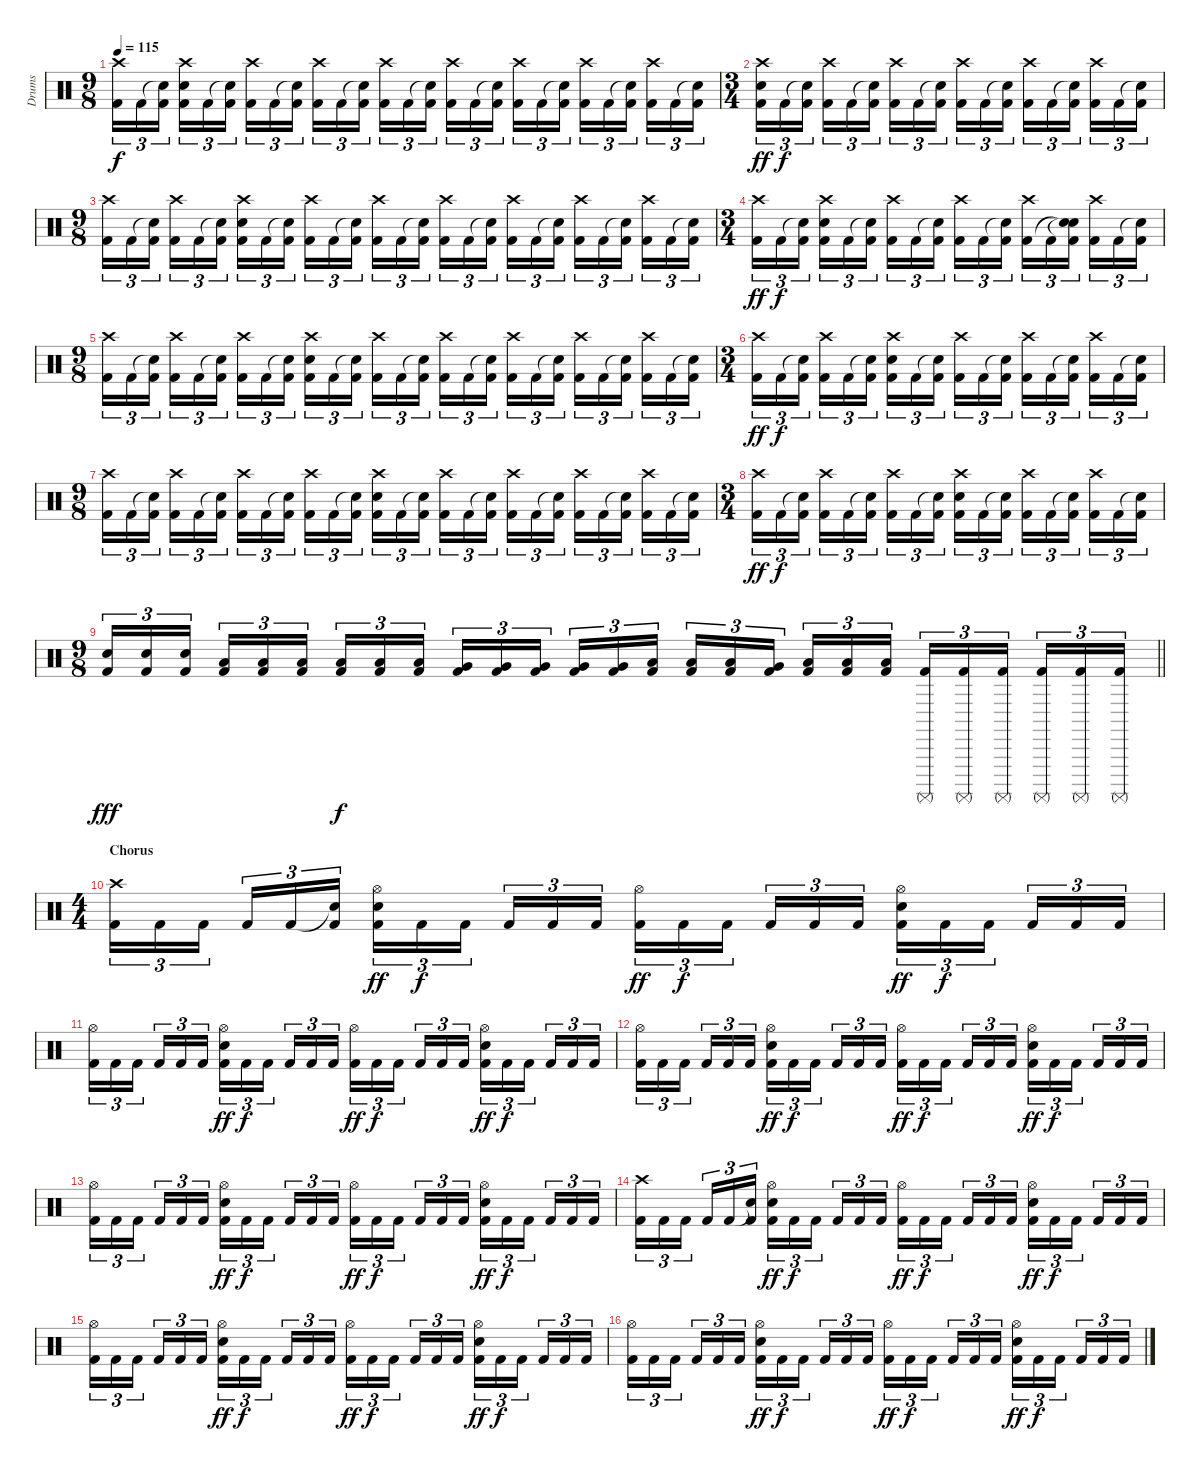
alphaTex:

\track ("Drums" "Drums") {instrument percussion}
\staff {score}
\articulation defaults
\ts (9 8)
\tempo 115
\clef neutral
\ks c
("Crash high (hit)" "Kick (hit) 2").16{tu (3 2) dy f} "Kick (hit) 2".16{tu (3 2)} ("Snare (hit)"{t} "Kick (hit) 2").16{tu (3 2) beam splitsecondary} ("Crash high (hit)" "Electric Snare (hit)" "Kick (hit) 2").16{tu (3 2)} "Kick (hit) 2".16{tu (3 2)} ("Snare (hit)"{t} "Kick (hit) 2").16{tu (3 2) beam splitsecondary} ("Crash high (hit)" "Kick (hit) 2").16{tu (3 2)} "Kick (hit) 2".16{tu (3 2)} ("Snare (hit)"{t} "Kick (hit) 2").16{tu (3 2)} ("Crash high (hit)" "Kick (hit) 2").16{tu (3 2)} "Kick (hit) 2".16{tu (3 2)} ("Snare (hit)"{t} "Kick (hit) 2").16{tu (3 2) beam splitsecondary} ("Crash high (hit)" "Kick (hit) 2").16{tu (3 2)} "Kick (hit) 2".16{tu (3 2)} ("Snare (hit)"{t} "Kick (hit) 2").16{tu (3 2) beam splitsecondary} ("Crash high (hit)" "Kick (hit) 2").16{tu (3 2)} "Kick (hit) 2".16{tu (3 2)} ("Snare (hit)"{t} "Kick (hit) 2").16{tu (3 2)} ("Crash high (hit)" "Kick (hit) 2").16{tu (3 2)} "Kick (hit) 2".16{tu (3 2)} ("Snare (hit)"{t} "Kick (hit) 2").16{tu (3 2) beam splitsecondary} ("Crash high (hit)" "Kick (hit) 2").16{tu (3 2)} "Kick (hit) 2".16{tu (3 2)} ("Snare (hit)"{t} "Kick (hit) 2").16{tu (3 2) beam splitsecondary} ("Crash high (hit)" "Kick (hit) 2").16{tu (3 2)} "Kick (hit) 2".16{tu (3 2)} ("Snare (hit)"{t} "Kick (hit) 2").16{tu (3 2)} |
\ts (3 4)
("Crash high (hit)" "Electric Snare (hit)" "Kick (hit) 2").16{tu (3 2) dy ff} "Kick (hit) 2".16{tu (3 2) dy f} ("Snare (hit)"{t} "Kick (hit) 2").16{tu (3 2) beam splitsecondary} ("Crash high (hit)" "Kick (hit) 2").16{tu (3 2)} "Kick (hit) 2".16{tu (3 2)} ("Snare (hit)"{t} "Kick (hit) 2").16{tu (3 2)} ("Crash high (hit)" "Kick (hit) 2").16{tu (3 2)} "Kick (hit) 2".16{tu (3 2)} ("Snare (hit)"{t} "Kick (hit) 2").16{tu (3 2) beam splitsecondary} ("Crash high (hit)" "Kick (hit) 2").16{tu (3 2)} "Kick (hit) 2".16{tu (3 2)} ("Snare (hit)"{t} "Kick (hit) 2").16{tu (3 2)} ("Crash high (hit)" "Kick (hit) 2").16{tu (3 2)} "Kick (hit) 2".16{tu (3 2)} ("Snare (hit)"{t} "Kick (hit) 2").16{tu (3 2) beam splitsecondary} ("Crash high (hit)" "Kick (hit) 2").16{tu (3 2)} "Kick (hit) 2".16{tu (3 2)} ("Snare (hit)"{t} "Kick (hit) 2").16{tu (3 2)} |
\ts (9 8)
("Crash high (hit)" "Kick (hit) 2").16{tu (3 2)} "Kick (hit) 2".16{tu (3 2)} ("Snare (hit)"{t} "Kick (hit) 2").16{tu (3 2) beam splitsecondary} ("Crash high (hit)" "Kick (hit) 2").16{tu (3 2)} "Kick (hit) 2".16{tu (3 2)} ("Snare (hit)"{t} "Kick (hit) 2").16{tu (3 2) beam splitsecondary} ("Crash high (hit)" "Electric Snare (hit)" "Kick (hit) 2").16{tu (3 2)} "Kick (hit) 2".16{tu (3 2)} ("Snare (hit)"{t} "Kick (hit) 2").16{tu (3 2)} ("Crash high (hit)" "Kick (hit) 2").16{tu (3 2)} "Kick (hit) 2".16{tu (3 2)} ("Snare (hit)"{t} "Kick (hit) 2").16{tu (3 2) beam splitsecondary} ("Crash high (hit)" "Kick (hit) 2").16{tu (3 2)} "Kick (hit) 2".16{tu (3 2)} ("Snare (hit)"{t} "Kick (hit) 2").16{tu (3 2) beam splitsecondary} ("Crash high (hit)" "Kick (hit) 2").16{tu (3 2)} "Kick (hit) 2".16{tu (3 2)} ("Snare (hit)"{t} "Kick (hit) 2").16{tu (3 2)} ("Crash high (hit)" "Kick (hit) 2").16{tu (3 2)} "Kick (hit) 2".16{tu (3 2)} ("Snare (hit)"{t} "Kick (hit) 2").16{tu (3 2) beam splitsecondary} ("Crash high (hit)" "Kick (hit) 2").16{tu (3 2)} "Kick (hit) 2".16{tu (3 2)} ("Snare (hit)"{t} "Kick (hit) 2").16{tu (3 2) beam splitsecondary} ("Crash high (hit)" "Kick (hit) 2").16{tu (3 2)} "Kick (hit) 2".16{tu (3 2)} ("Snare (hit)"{t} "Kick (hit) 2").16{tu (3 2)} |
\ts (3 4)
("Crash high (hit)" "Kick (hit) 2").16{tu (3 2) dy ff} "Kick (hit) 2".16{tu (3 2) dy f} ("Snare (hit)"{t} "Kick (hit) 2").16{tu (3 2) beam splitsecondary} ("Crash high (hit)" "Electric Snare (hit)" "Kick (hit) 2").16{tu (3 2)} "Kick (hit) 2".16{tu (3 2)} ("Snare (hit)"{t} "Kick (hit) 2").16{tu (3 2)} ("Crash high (hit)" "Kick (hit) 2").16{tu (3 2)} "Kick (hit) 2".16{tu (3 2)} ("Snare (hit)"{t} "Kick (hit) 2").16{tu (3 2) beam splitsecondary} ("Crash high (hit)" "Kick (hit) 2").16{tu (3 2)} "Kick (hit) 2".16{tu (3 2)} ("Snare (hit)"{t} "Kick (hit) 2").16{tu (3 2)} ("Crash high (hit)" "Kick (hit) 2").16{tu (3 2)} "Kick (hit) 2".16{tu (3 2)} ("Snare (hit)"{t} "Snare (hit)"{t} "Kick (hit) 2").16{tu (3 2) beam splitsecondary} ("Crash high (hit)" "Kick (hit) 2").16{tu (3 2)} "Kick (hit) 2".16{tu (3 2)} ("Snare (hit)"{t} "Kick (hit) 2").16{tu (3 2)} |
\ts (9 8)
("Crash high (hit)" "Kick (hit) 2").16{tu (3 2)} "Kick (hit) 2".16{tu (3 2)} ("Snare (hit)"{t} "Kick (hit) 2").16{tu (3 2) beam splitsecondary} ("Crash high (hit)" "Kick (hit) 2").16{tu (3 2)} "Kick (hit) 2".16{tu (3 2)} ("Snare (hit)"{t} "Kick (hit) 2").16{tu (3 2) beam splitsecondary} ("Crash high (hit)" "Kick (hit) 2").16{tu (3 2)} "Kick (hit) 2".16{tu (3 2)} ("Snare (hit)"{t} "Kick (hit) 2").16{tu (3 2)} ("Crash high (hit)" "Electric Snare (hit)" "Kick (hit) 2").16{tu (3 2)} "Kick (hit) 2".16{tu (3 2)} ("Snare (hit)"{t} "Kick (hit) 2").16{tu (3 2) beam splitsecondary} ("Crash high (hit)" "Kick (hit) 2").16{tu (3 2)} "Kick (hit) 2".16{tu (3 2)} ("Snare (hit)"{t} "Kick (hit) 2").16{tu (3 2) beam splitsecondary} ("Crash high (hit)" "Kick (hit) 2").16{tu (3 2)} "Kick (hit) 2".16{tu (3 2)} ("Snare (hit)"{t} "Kick (hit) 2").16{tu (3 2)} ("Crash high (hit)" "Kick (hit) 2").16{tu (3 2)} "Kick (hit) 2".16{tu (3 2)} ("Snare (hit)"{t} "Kick (hit) 2").16{tu (3 2) beam splitsecondary} ("Crash high (hit)" "Kick (hit) 2").16{tu (3 2)} "Kick (hit) 2".16{tu (3 2)} ("Snare (hit)"{t} "Kick (hit) 2").16{tu (3 2) beam splitsecondary} ("Crash high (hit)" "Kick (hit) 2").16{tu (3 2)} "Kick (hit) 2".16{tu (3 2)} ("Snare (hit)"{t} "Kick (hit) 2").16{tu (3 2)} |
\ts (3 4)
("Crash high (hit)" "Kick (hit) 2").16{tu (3 2) dy ff} "Kick (hit) 2".16{tu (3 2) dy f} ("Snare (hit)"{t} "Kick (hit) 2").16{tu (3 2) beam splitsecondary} ("Crash high (hit)" "Kick (hit) 2").16{tu (3 2)} "Kick (hit) 2".16{tu (3 2)} ("Snare (hit)"{t} "Kick (hit) 2").16{tu (3 2)} ("Crash high (hit)" "Electric Snare (hit)" "Kick (hit) 2").16{tu (3 2)} "Kick (hit) 2".16{tu (3 2)} ("Snare (hit)"{t} "Kick (hit) 2").16{tu (3 2) beam splitsecondary} ("Crash high (hit)" "Kick (hit) 2").16{tu (3 2)} "Kick (hit) 2".16{tu (3 2)} ("Snare (hit)"{t} "Kick (hit) 2").16{tu (3 2)} ("Crash high (hit)" "Kick (hit) 2").16{tu (3 2)} "Kick (hit) 2".16{tu (3 2)} ("Snare (hit)"{t} "Kick (hit) 2").16{tu (3 2) beam splitsecondary} ("Crash high (hit)" "Kick (hit) 2").16{tu (3 2)} "Kick (hit) 2".16{tu (3 2)} ("Snare (hit)"{t} "Kick (hit) 2").16{tu (3 2)} |
\ts (9 8)
("Crash high (hit)" "Kick (hit) 2").16{tu (3 2)} "Kick (hit) 2".16{tu (3 2)} ("Snare (hit)"{t} "Kick (hit) 2").16{tu (3 2) beam splitsecondary} ("Crash high (hit)" "Kick (hit) 2").16{tu (3 2)} "Kick (hit) 2".16{tu (3 2)} ("Snare (hit)"{t} "Kick (hit) 2").16{tu (3 2) beam splitsecondary} ("Crash high (hit)" "Kick (hit) 2").16{tu (3 2)} "Kick (hit) 2".16{tu (3 2)} ("Snare (hit)"{t} "Kick (hit) 2").16{tu (3 2)} ("Crash high (hit)" "Kick (hit) 2").16{tu (3 2)} "Kick (hit) 2".16{tu (3 2)} ("Snare (hit)"{t} "Kick (hit) 2").16{tu (3 2) beam splitsecondary} ("Crash high (hit)" "Electric Snare (hit)" "Kick (hit) 2").16{tu (3 2)} "Kick (hit) 2".16{tu (3 2)} ("Snare (hit)"{t} "Kick (hit) 2").16{tu (3 2) beam splitsecondary} ("Crash high (hit)" "Kick (hit) 2").16{tu (3 2)} "Kick (hit) 2".16{tu (3 2)} ("Snare (hit)"{t} "Kick (hit) 2").16{tu (3 2)} ("Crash high (hit)" "Kick (hit) 2").16{tu (3 2)} "Kick (hit) 2".16{tu (3 2)} ("Snare (hit)"{t} "Kick (hit) 2").16{tu (3 2) beam splitsecondary} ("Crash high (hit)" "Kick (hit) 2").16{tu (3 2)} "Kick (hit) 2".16{tu (3 2)} ("Snare (hit)"{t} "Kick (hit) 2").16{tu (3 2) beam splitsecondary} ("Crash high (hit)" "Kick (hit) 2").16{tu (3 2)} "Kick (hit) 2".16{tu (3 2)} ("Snare (hit)"{t} "Kick (hit) 2").16{tu (3 2)} |
\ts (3 4)
("Crash high (hit)" "Kick (hit) 2").16{tu (3 2) dy ff} "Kick (hit) 2".16{tu (3 2) dy f} ("Snare (hit)"{t} "Kick (hit) 2").16{tu (3 2) beam splitsecondary} ("Crash high (hit)" "Kick (hit) 2").16{tu (3 2)} "Kick (hit) 2".16{tu (3 2)} ("Snare (hit)"{t} "Kick (hit) 2").16{tu (3 2)} ("Crash high (hit)" "Kick (hit) 2").16{tu (3 2)} "Kick (hit) 2".16{tu (3 2)} ("Snare (hit)"{t} "Kick (hit) 2").16{tu (3 2) beam splitsecondary} ("Crash high (hit)" "Electric Snare (hit)" "Kick (hit) 2").16{tu (3 2)} "Kick (hit) 2".16{tu (3 2)} ("Snare (hit)"{t} "Kick (hit) 2").16{tu (3 2)} ("Crash high (hit)" "Kick (hit) 2").16{tu (3 2)} "Kick (hit) 2".16{tu (3 2)} ("Snare (hit)"{t} "Kick (hit) 2").16{tu (3 2) beam splitsecondary} ("Crash high (hit)" "Kick (hit) 2").16{tu (3 2)} "Kick (hit) 2".16{tu (3 2)} ("Snare (hit)"{t} "Kick (hit) 2").16{tu (3 2)} |
\ts (9 8)
\barLineRight lightlight
("Snare (hit) 2" "Kick (hit) 2").16{tu (3 2) dy fff} ("Snare (hit) 2" "Kick (hit) 2").16{tu (3 2)} ("Snare (hit) 2" "Kick (hit) 2").16{tu (3 2) beam splitsecondary} ("Low Tom (hit)" "Kick (hit) 2").16{tu (3 2)} ("Low Tom (hit)" "Kick (hit) 2").16{tu (3 2)} ("Low Tom (hit)" "Kick (hit) 2").16{tu (3 2) beam splitsecondary} ("Low Tom (hit)" "Kick (hit) 2").16{tu (3 2) dy f} ("Low Tom (hit)" "Kick (hit) 2").16{tu (3 2)} ("Low Tom (hit)" "Kick (hit) 2").16{tu (3 2)} ("Very Low Tom (hit)" "Kick (hit) 2").16{tu (3 2)} ("Very Low Tom (hit)" "Kick (hit) 2").16{tu (3 2)} ("Very Low Tom (hit)" "Kick (hit) 2").16{tu (3 2) beam splitsecondary} ("Very Low Tom (hit)" "Kick (hit) 2").16{tu (3 2)} ("Very Low Tom (hit)" "Kick (hit) 2").16{tu (3 2)} ("Low Floor Tom (hit)" "Kick (hit) 2").16{tu (3 2) beam splitsecondary} ("Low Floor Tom (hit)" "Kick (hit) 2").16{tu (3 2)} ("Low Floor Tom (hit)" "Kick (hit) 2").16{tu (3 2)} ("Very Low Tom (hit)" "Kick (hit) 2").16{tu (3 2)} ("Low Floor Tom (hit)" "Kick (hit) 2").16{tu (3 2)} ("Low Floor Tom (hit)" "Kick (hit) 2").16{tu (3 2)} ("Low Floor Tom (hit)" "Kick (hit) 2").16{tu (3 2) beam splitsecondary} ("Surdo (mute)" "Kick (hit) 2").16{tu (3 2)} ("Surdo (mute)" "Kick (hit) 2").16{tu (3 2)} ("Surdo (mute)" "Kick (hit) 2").16{tu (3 2) beam splitsecondary} ("Surdo (mute)" "Kick (hit) 2").16{tu (3 2)} ("Surdo (mute)" "Kick (hit) 2").16{tu (3 2)} ("Surdo (mute)" "Kick (hit) 2").16{tu (3 2)} |
\ts (4 4)
\section ("" "Chorus")
("Crash high (hit)" "Kick (hit) 2").16{tu (3 2)} "Kick (hit) 2".16{tu (3 2)} "Kick (hit) 2".16{tu (3 2) beam splitsecondary} "Kick (hit) 2".16{tu (3 2)} "Kick (hit) 2".16{tu (3 2)} ("Snare (hit)"{t} "Kick (hit) 2").16{tu (3 2)} ("Hi-Hat (open)" "Electric Snare (hit)" "Kick (hit) 2").16{tu (3 2) dy ff} "Kick (hit) 2".16{tu (3 2) dy f} "Kick (hit) 2".16{tu (3 2) beam splitsecondary} "Kick (hit) 2".16{tu (3 2)} "Kick (hit) 2".16{tu (3 2)} "Kick (hit) 2".16{tu (3 2)} ("Hi-Hat (open)" "Kick (hit) 2").16{tu (3 2) dy ff} "Kick (hit) 2".16{tu (3 2) dy f} "Kick (hit) 2".16{tu (3 2) beam splitsecondary} "Kick (hit) 2".16{tu (3 2)} "Kick (hit) 2".16{tu (3 2)} "Kick (hit) 2".16{tu (3 2)} ("Hi-Hat (open)" "Electric Snare (hit)" "Kick (hit) 2").16{tu (3 2) dy ff} "Kick (hit) 2".16{tu (3 2) dy f} "Kick (hit) 2".16{tu (3 2) beam splitsecondary} "Kick (hit) 2".16{tu (3 2)} "Kick (hit) 2".16{tu (3 2)} "Kick (hit) 2".16{tu (3 2)} |
("Hi-Hat (open)" "Kick (hit) 2").16{tu (3 2)} "Kick (hit) 2".16{tu (3 2)} "Kick (hit) 2".16{tu (3 2) beam splitsecondary} "Kick (hit) 2".16{tu (3 2)} "Kick (hit) 2".16{tu (3 2)} "Kick (hit) 2".16{tu (3 2)} ("Hi-Hat (open)" "Electric Snare (hit)" "Kick (hit) 2").16{tu (3 2) dy ff} "Kick (hit) 2".16{tu (3 2) dy f} "Kick (hit) 2".16{tu (3 2) beam splitsecondary} "Kick (hit) 2".16{tu (3 2)} "Kick (hit) 2".16{tu (3 2)} "Kick (hit) 2".16{tu (3 2)} ("Hi-Hat (open)" "Kick (hit) 2").16{tu (3 2) dy ff} "Kick (hit) 2".16{tu (3 2) dy f} "Kick (hit) 2".16{tu (3 2) beam splitsecondary} "Kick (hit) 2".16{tu (3 2)} "Kick (hit) 2".16{tu (3 2)} "Kick (hit) 2".16{tu (3 2)} ("Hi-Hat (open)" "Electric Snare (hit)" "Kick (hit) 2").16{tu (3 2) dy ff} "Kick (hit) 2".16{tu (3 2) dy f} "Kick (hit) 2".16{tu (3 2) beam splitsecondary} "Kick (hit) 2".16{tu (3 2)} "Kick (hit) 2".16{tu (3 2)} "Kick (hit) 2".16{tu (3 2)} |
("Hi-Hat (open)" "Kick (hit) 2").16{tu (3 2)} "Kick (hit) 2".16{tu (3 2)} "Kick (hit) 2".16{tu (3 2) beam splitsecondary} "Kick (hit) 2".16{tu (3 2)} "Kick (hit) 2".16{tu (3 2)} "Kick (hit) 2".16{tu (3 2)} ("Hi-Hat (open)" "Electric Snare (hit)" "Kick (hit) 2").16{tu (3 2) dy ff} "Kick (hit) 2".16{tu (3 2) dy f} "Kick (hit) 2".16{tu (3 2) beam splitsecondary} "Kick (hit) 2".16{tu (3 2)} "Kick (hit) 2".16{tu (3 2)} "Kick (hit) 2".16{tu (3 2)} ("Hi-Hat (open)" "Kick (hit) 2").16{tu (3 2) dy ff} "Kick (hit) 2".16{tu (3 2) dy f} "Kick (hit) 2".16{tu (3 2) beam splitsecondary} "Kick (hit) 2".16{tu (3 2)} "Kick (hit) 2".16{tu (3 2)} "Kick (hit) 2".16{tu (3 2)} ("Hi-Hat (open)" "Electric Snare (hit)" "Kick (hit) 2").16{tu (3 2) dy ff} "Kick (hit) 2".16{tu (3 2) dy f} "Kick (hit) 2".16{tu (3 2) beam splitsecondary} "Kick (hit) 2".16{tu (3 2)} "Kick (hit) 2".16{tu (3 2)} "Kick (hit) 2".16{tu (3 2)} |
("Hi-Hat (open)" "Kick (hit) 2").16{tu (3 2)} "Kick (hit) 2".16{tu (3 2)} "Kick (hit) 2".16{tu (3 2) beam splitsecondary} "Kick (hit) 2".16{tu (3 2)} "Kick (hit) 2".16{tu (3 2)} "Kick (hit) 2".16{tu (3 2)} ("Hi-Hat (open)" "Electric Snare (hit)" "Kick (hit) 2").16{tu (3 2) dy ff} "Kick (hit) 2".16{tu (3 2) dy f} "Kick (hit) 2".16{tu (3 2) beam splitsecondary} "Kick (hit) 2".16{tu (3 2)} "Kick (hit) 2".16{tu (3 2)} "Kick (hit) 2".16{tu (3 2)} ("Hi-Hat (open)" "Kick (hit) 2").16{tu (3 2) dy ff} "Kick (hit) 2".16{tu (3 2) dy f} "Kick (hit) 2".16{tu (3 2) beam splitsecondary} "Kick (hit) 2".16{tu (3 2)} "Kick (hit) 2".16{tu (3 2)} "Kick (hit) 2".16{tu (3 2)} ("Hi-Hat (open)" "Electric Snare (hit)" "Kick (hit) 2").16{tu (3 2) dy ff} "Kick (hit) 2".16{tu (3 2) dy f} "Kick (hit) 2".16{tu (3 2) beam splitsecondary} "Kick (hit) 2".16{tu (3 2)} "Kick (hit) 2".16{tu (3 2)} "Kick (hit) 2".16{tu (3 2)} |
("Crash high (hit)" "Kick (hit) 2").16{tu (3 2)} "Kick (hit) 2".16{tu (3 2)} "Kick (hit) 2".16{tu (3 2) beam splitsecondary} "Kick (hit) 2".16{tu (3 2)} "Kick (hit) 2".16{tu (3 2)} ("Snare (hit)"{t} "Kick (hit) 2").16{tu (3 2)} ("Hi-Hat (open)" "Electric Snare (hit)" "Kick (hit) 2").16{tu (3 2) dy ff} "Kick (hit) 2".16{tu (3 2) dy f} "Kick (hit) 2".16{tu (3 2) beam splitsecondary} "Kick (hit) 2".16{tu (3 2)} "Kick (hit) 2".16{tu (3 2)} "Kick (hit) 2".16{tu (3 2)} ("Hi-Hat (open)" "Kick (hit) 2").16{tu (3 2) dy ff} "Kick (hit) 2".16{tu (3 2) dy f} "Kick (hit) 2".16{tu (3 2) beam splitsecondary} "Kick (hit) 2".16{tu (3 2)} "Kick (hit) 2".16{tu (3 2)} "Kick (hit) 2".16{tu (3 2)} ("Hi-Hat (open)" "Electric Snare (hit)" "Kick (hit) 2").16{tu (3 2) dy ff} "Kick (hit) 2".16{tu (3 2) dy f} "Kick (hit) 2".16{tu (3 2) beam splitsecondary} "Kick (hit) 2".16{tu (3 2)} "Kick (hit) 2".16{tu (3 2)} "Kick (hit) 2".16{tu (3 2)} |
("Hi-Hat (open)" "Kick (hit) 2").16{tu (3 2)} "Kick (hit) 2".16{tu (3 2)} "Kick (hit) 2".16{tu (3 2) beam splitsecondary} "Kick (hit) 2".16{tu (3 2)} "Kick (hit) 2".16{tu (3 2)} "Kick (hit) 2".16{tu (3 2)} ("Hi-Hat (open)" "Electric Snare (hit)" "Kick (hit) 2").16{tu (3 2) dy ff} "Kick (hit) 2".16{tu (3 2) dy f} "Kick (hit) 2".16{tu (3 2) beam splitsecondary} "Kick (hit) 2".16{tu (3 2)} "Kick (hit) 2".16{tu (3 2)} "Kick (hit) 2".16{tu (3 2)} ("Hi-Hat (open)" "Kick (hit) 2").16{tu (3 2) dy ff} "Kick (hit) 2".16{tu (3 2) dy f} "Kick (hit) 2".16{tu (3 2) beam splitsecondary} "Kick (hit) 2".16{tu (3 2)} "Kick (hit) 2".16{tu (3 2)} "Kick (hit) 2".16{tu (3 2)} ("Hi-Hat (open)" "Electric Snare (hit)" "Kick (hit) 2").16{tu (3 2) dy ff} "Kick (hit) 2".16{tu (3 2) dy f} "Kick (hit) 2".16{tu (3 2) beam splitsecondary} "Kick (hit) 2".16{tu (3 2)} "Kick (hit) 2".16{tu (3 2)} "Kick (hit) 2".16{tu (3 2)} |
("Hi-Hat (open)" "Kick (hit) 2").16{tu (3 2)} "Kick (hit) 2".16{tu (3 2)} "Kick (hit) 2".16{tu (3 2) beam splitsecondary} "Kick (hit) 2".16{tu (3 2)} "Kick (hit) 2".16{tu (3 2)} "Kick (hit) 2".16{tu (3 2)} ("Hi-Hat (open)" "Electric Snare (hit)" "Kick (hit) 2").16{tu (3 2) dy ff} "Kick (hit) 2".16{tu (3 2) dy f} "Kick (hit) 2".16{tu (3 2) beam splitsecondary} "Kick (hit) 2".16{tu (3 2)} "Kick (hit) 2".16{tu (3 2)} "Kick (hit) 2".16{tu (3 2)} ("Hi-Hat (open)" "Kick (hit) 2").16{tu (3 2) dy ff} "Kick (hit) 2".16{tu (3 2) dy f} "Kick (hit) 2".16{tu (3 2) beam splitsecondary} "Kick (hit) 2".16{tu (3 2)} "Kick (hit) 2".16{tu (3 2)} "Kick (hit) 2".16{tu (3 2)} ("Hi-Hat (open)" "Electric Snare (hit)" "Kick (hit) 2").16{tu (3 2) dy ff} "Kick (hit) 2".16{tu (3 2) dy f} "Kick (hit) 2".16{tu (3 2) beam splitsecondary} "Kick (hit) 2".16{tu (3 2)} "Kick (hit) 2".16{tu (3 2)} "Kick (hit) 2".16{tu (3 2)}
